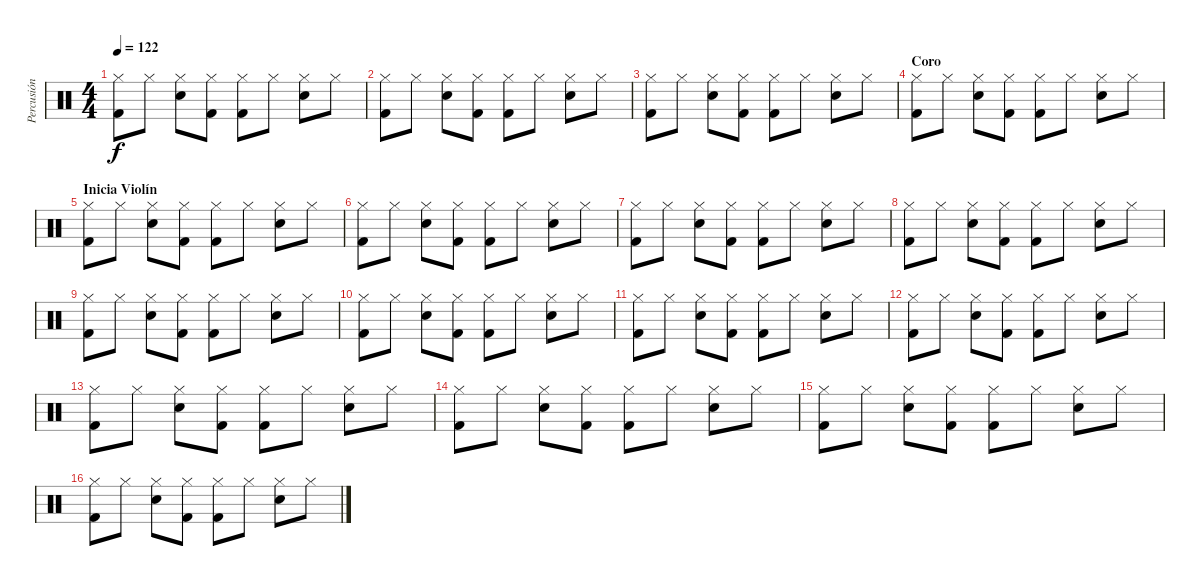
\track ("Percusión" "Percusión") {instrument percussion}
\staff {score}
\articulation defaults
\ts (4 4)
\tempo 122
\clef neutral
\ks c
("Hi-Hat (closed)" "Kick (hit) 2").8{dy f} "Hi-Hat (closed)".8 ("Hi-Hat (closed)" "Electric Snare (hit)").8 ("Hi-Hat (closed)" "Kick (hit) 2").8 ("Hi-Hat (closed)" "Kick (hit) 2").8 "Hi-Hat (closed)".8 ("Hi-Hat (closed)" "Electric Snare (hit)").8 "Hi-Hat (closed)".8 |
("Hi-Hat (closed)" "Kick (hit) 2").8 "Hi-Hat (closed)".8 ("Hi-Hat (closed)" "Electric Snare (hit)").8 ("Hi-Hat (closed)" "Kick (hit) 2").8 ("Hi-Hat (closed)" "Kick (hit) 2").8 "Hi-Hat (closed)".8 ("Hi-Hat (closed)" "Electric Snare (hit)").8 "Hi-Hat (closed)".8 |
("Hi-Hat (closed)" "Kick (hit) 2").8 "Hi-Hat (closed)".8 ("Hi-Hat (closed)" "Electric Snare (hit)").8 ("Hi-Hat (closed)" "Kick (hit) 2").8 ("Hi-Hat (closed)" "Kick (hit) 2").8 "Hi-Hat (closed)".8 ("Hi-Hat (closed)" "Electric Snare (hit)").8 "Hi-Hat (closed)".8 |
\section ("" "Coro")
("Hi-Hat (closed)" "Kick (hit) 2").8 "Hi-Hat (closed)".8 ("Hi-Hat (closed)" "Electric Snare (hit)").8 ("Hi-Hat (closed)" "Kick (hit) 2").8 ("Hi-Hat (closed)" "Kick (hit) 2").8 "Hi-Hat (closed)".8 ("Hi-Hat (closed)" "Electric Snare (hit)").8 "Hi-Hat (closed)".8 |
\section ("" "Inicia Violín")
("Hi-Hat (closed)" "Kick (hit) 2").8 "Hi-Hat (closed)".8 ("Hi-Hat (closed)" "Electric Snare (hit)").8 ("Hi-Hat (closed)" "Kick (hit) 2").8 ("Hi-Hat (closed)" "Kick (hit) 2").8 "Hi-Hat (closed)".8 ("Hi-Hat (closed)" "Electric Snare (hit)").8 "Hi-Hat (closed)".8 |
("Hi-Hat (closed)" "Kick (hit) 2").8 "Hi-Hat (closed)".8 ("Hi-Hat (closed)" "Electric Snare (hit)").8 ("Hi-Hat (closed)" "Kick (hit) 2").8 ("Hi-Hat (closed)" "Kick (hit) 2").8 "Hi-Hat (closed)".8 ("Hi-Hat (closed)" "Electric Snare (hit)").8 "Hi-Hat (closed)".8 |
("Hi-Hat (closed)" "Kick (hit) 2").8 "Hi-Hat (closed)".8 ("Hi-Hat (closed)" "Electric Snare (hit)").8 ("Hi-Hat (closed)" "Kick (hit) 2").8 ("Hi-Hat (closed)" "Kick (hit) 2").8 "Hi-Hat (closed)".8 ("Hi-Hat (closed)" "Electric Snare (hit)").8 "Hi-Hat (closed)".8 |
("Hi-Hat (closed)" "Kick (hit) 2").8 "Hi-Hat (closed)".8 ("Hi-Hat (closed)" "Electric Snare (hit)").8 ("Hi-Hat (closed)" "Kick (hit) 2").8 ("Hi-Hat (closed)" "Kick (hit) 2").8 "Hi-Hat (closed)".8 ("Hi-Hat (closed)" "Electric Snare (hit)").8 "Hi-Hat (closed)".8 |
("Hi-Hat (closed)" "Kick (hit) 2").8 "Hi-Hat (closed)".8 ("Hi-Hat (closed)" "Electric Snare (hit)").8 ("Hi-Hat (closed)" "Kick (hit) 2").8 ("Hi-Hat (closed)" "Kick (hit) 2").8 "Hi-Hat (closed)".8 ("Hi-Hat (closed)" "Electric Snare (hit)").8 "Hi-Hat (closed)".8 |
("Hi-Hat (closed)" "Kick (hit) 2").8 "Hi-Hat (closed)".8 ("Hi-Hat (closed)" "Electric Snare (hit)").8 ("Hi-Hat (closed)" "Kick (hit) 2").8 ("Hi-Hat (closed)" "Kick (hit) 2").8 "Hi-Hat (closed)".8 ("Hi-Hat (closed)" "Electric Snare (hit)").8 "Hi-Hat (closed)".8 |
("Hi-Hat (closed)" "Kick (hit) 2").8 "Hi-Hat (closed)".8 ("Hi-Hat (closed)" "Electric Snare (hit)").8 ("Hi-Hat (closed)" "Kick (hit) 2").8 ("Hi-Hat (closed)" "Kick (hit) 2").8 "Hi-Hat (closed)".8 ("Hi-Hat (closed)" "Electric Snare (hit)").8 "Hi-Hat (closed)".8 |
("Hi-Hat (closed)" "Kick (hit) 2").8 "Hi-Hat (closed)".8 ("Hi-Hat (closed)" "Electric Snare (hit)").8 ("Hi-Hat (closed)" "Kick (hit) 2").8 ("Hi-Hat (closed)" "Kick (hit) 2").8 "Hi-Hat (closed)".8 ("Hi-Hat (closed)" "Electric Snare (hit)").8 "Hi-Hat (closed)".8 |
("Hi-Hat (closed)" "Kick (hit) 2").8 "Hi-Hat (closed)".8 ("Hi-Hat (closed)" "Electric Snare (hit)").8 ("Hi-Hat (closed)" "Kick (hit) 2").8 ("Hi-Hat (closed)" "Kick (hit) 2").8 "Hi-Hat (closed)".8 ("Hi-Hat (closed)" "Electric Snare (hit)").8 "Hi-Hat (closed)".8 |
("Hi-Hat (closed)" "Kick (hit) 2").8 "Hi-Hat (closed)".8 ("Hi-Hat (closed)" "Electric Snare (hit)").8 ("Hi-Hat (closed)" "Kick (hit) 2").8 ("Hi-Hat (closed)" "Kick (hit) 2").8 "Hi-Hat (closed)".8 ("Hi-Hat (closed)" "Electric Snare (hit)").8 "Hi-Hat (closed)".8 |
("Hi-Hat (closed)" "Kick (hit) 2").8 "Hi-Hat (closed)".8 ("Hi-Hat (closed)" "Electric Snare (hit)").8 ("Hi-Hat (closed)" "Kick (hit) 2").8 ("Hi-Hat (closed)" "Kick (hit) 2").8 "Hi-Hat (closed)".8 ("Hi-Hat (closed)" "Electric Snare (hit)").8 "Hi-Hat (closed)".8 |
("Hi-Hat (closed)" "Kick (hit) 2").8 "Hi-Hat (closed)".8 ("Hi-Hat (closed)" "Electric Snare (hit)").8 ("Hi-Hat (closed)" "Kick (hit) 2").8 ("Hi-Hat (closed)" "Kick (hit) 2").8 "Hi-Hat (closed)".8 ("Hi-Hat (closed)" "Electric Snare (hit)").8 "Hi-Hat (closed)".8
